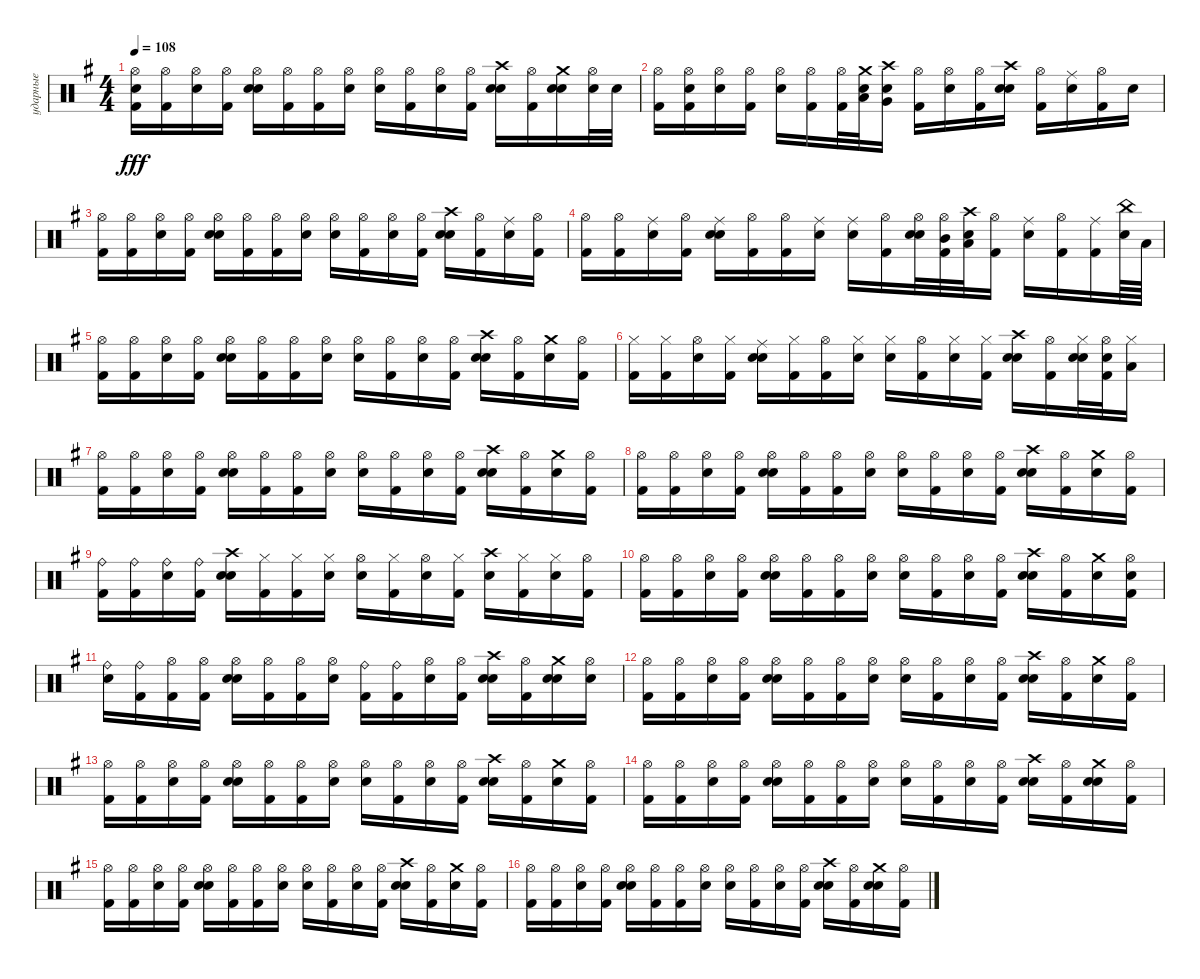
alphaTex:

\track ("ударные" "ударные") {instrument percussion}
\staff {score}
\articulation defaults
\ts (4 4)
\tempo 108
\clef neutral
\ks eminor
("Hi-Hat (open)" "Snare (hit) 2" "Kick (hit) 2").16{dy fff} ("Hi-Hat (open)" "Kick (hit) 2").16 ("Hi-Hat (open)" "Snare (hit)").16 ("Hi-Hat (open)" "Kick (hit) 2").16 ("Hi-Hat (open)" "Snare (hit) 2" "Snare (hit)").16 ("Hi-Hat (open)" "Kick (hit) 2").16 ("Hi-Hat (open)" "Kick (hit) 2").16 ("Hi-Hat (open)" "Snare (hit)").16 ("Hi-Hat (open)" "Snare (hit)").16 ("Hi-Hat (open)" "Kick (hit) 2").16 ("Hi-Hat (open)" "Snare (hit)").16 ("Hi-Hat (open)" "Kick (hit) 2").16 ("Crash high (hit)" "Snare (hit) 2" "Snare (hit)").16 ("Hi-Hat (open)" "Kick (hit) 2").16 ("Crash medium (hit)" "Snare (hit) 2" "Snare (hit)").16 ("Hi-Hat (open)" "Snare (hit) 2").32 "Snare (hit) 2".32 |
("Hi-Hat (open)" "Kick (hit) 2").16 ("Hi-Hat (open)" "Snare (hit) 2" "Kick (hit) 2").16 ("Hi-Hat (open)" "Snare (hit)").16 ("Hi-Hat (open)" "Kick (hit) 2").16 ("Hi-Hat (open)" "Snare (hit)").16 ("Hi-Hat (open)" "Kick (hit) 2").16 ("Hi-Hat (open)" "Kick (hit) 2").32 ("Crash medium (hit)" "Low Tom (hit)" "Snare (hit)").32 ("Crash high (hit)" "Very Low Tom (hit)" "Snare (hit)").16 ("Hi-Hat (open)" "Kick (hit) 2").16 ("Hi-Hat (open)" "Snare (hit)").16 ("Hi-Hat (open)" "Kick (hit) 2").16 ("Crash high (hit)" "Snare (hit) 2" "Snare (hit)").16 ("Hi-Hat (open)" "Kick (hit) 2").16 ("Ride (middle)" "Snare (hit)").16 ("Hi-Hat (open)" "Kick (hit) 2").16 "Snare (hit) 2".16 |
("Hi-Hat (open)" "Kick (hit) 2").16 ("Hi-Hat (open)" "Kick (hit) 2").16 ("Hi-Hat (open)" "Snare (hit)").16 ("Hi-Hat (open)" "Kick (hit) 2").16 ("Hi-Hat (open)" "Snare (hit) 2" "Snare (hit)").16 ("Hi-Hat (open)" "Kick (hit) 2").16 ("Hi-Hat (open)" "Kick (hit) 2").16 ("Hi-Hat (open)" "Snare (hit)").16 ("Hi-Hat (open)" "Snare (hit)").16 ("Hi-Hat (open)" "Kick (hit) 2").16 ("Hi-Hat (open)" "Snare (hit)").16 ("Hi-Hat (open)" "Kick (hit) 2").16 ("Crash high (hit)" "Snare (hit) 2" "Snare (hit)").16 ("Hi-Hat (open)" "Kick (hit) 2").16 ("Ride (middle)" "Snare (hit)").16 ("Hi-Hat (open)" "Kick (hit) 2").16 |
("Hi-Hat (open)" "Kick (hit) 2").16 ("Hi-Hat (open)" "Kick (hit) 2").16 ("Ride (middle)" "Snare (hit)").16 ("Hi-Hat (open)" "Kick (hit) 2").16 ("Ride (middle)" "Snare (hit) 2" "Snare (hit)").16 ("Hi-Hat (open)" "Kick (hit) 2").16 ("Hi-Hat (open)" "Kick (hit) 2").16 ("Ride (middle)" "Snare (hit)").16 ("Ride (middle)" "Snare (hit)").16 ("Hi-Hat (open)" "Kick (hit) 2").16 ("Hi-Hat (open)" "Snare (hit) 2" "Snare (hit)").32 ("Hi-Hat (open)" "Mid Tom (hit)" "Kick (hit) 2").32 ("Crash high (hit)" "Low Tom (hit)" "Snare (hit)").32 ("Hi-Hat (open)" "Kick (hit) 2").16 ("Ride (middle)" "Snare (hit)").16 ("Hi-Hat (open)" "Kick (hit) 2").16 ("Ride (middle)" "Kick (hit) 2").16 ("China (hit)" "Snare (hit) 2").64 "Low Floor Tom (hit)".64 |
("Hi-Hat (open)" "Kick (hit) 2").16 ("Hi-Hat (open)" "Kick (hit) 2").16 ("Hi-Hat (open)" "Snare (hit)").16 ("Hi-Hat (open)" "Kick (hit) 2").16 ("Hi-Hat (open)" "Snare (hit) 2" "Snare (hit)").16 ("Hi-Hat (open)" "Kick (hit) 2").16 ("Hi-Hat (open)" "Kick (hit) 2").16 ("Hi-Hat (open)" "Snare (hit)").16 ("Hi-Hat (open)" "Snare (hit)").16 ("Hi-Hat (open)" "Kick (hit) 2").16 ("Hi-Hat (open)" "Snare (hit)").16 ("Hi-Hat (open)" "Kick (hit) 2").16 ("Crash high (hit)" "Snare (hit) 2" "Snare (hit)").16 ("Hi-Hat (open)" "Kick (hit) 2").16 ("Crash medium (hit)" "Snare (hit)").16 ("Hi-Hat (open)" "Kick (hit) 2").16 |
("Hi-Hat (closed)" "Kick (hit) 2").16 ("Hi-Hat (closed)" "Kick (hit) 2").16 ("Hi-Hat (open)" "Snare (hit)").16 ("Hi-Hat (closed)" "Kick (hit) 2").16 ("Ride (middle)" "Snare (hit) 2" "Snare (hit)").16 ("Hi-Hat (closed)" "Kick (hit) 2").16 ("Hi-Hat (open)" "Kick (hit) 2").16 ("Hi-Hat (closed)" "Snare (hit)").16 ("Hi-Hat (closed)" "Snare (hit)").16 ("Hi-Hat (open)" "Kick (hit) 2").16 ("Hi-Hat (closed)" "Snare (hit)").16 ("Hi-Hat (closed)" "Kick (hit) 2").16 ("Crash high (hit)" "Snare (hit) 2" "Snare (hit)").16 ("Hi-Hat (open)" "Kick (hit) 2").16 ("Hi-Hat (closed)" "Snare (hit) 2" "Snare (hit)").32 ("Hi-Hat (open)" "Snare (hit) 2" "Kick (hit) 2").32 ("Hi-Hat (closed)" "Low Floor Tom (hit)").16 |
("Hi-Hat (open)" "Kick (hit) 2").16 ("Hi-Hat (open)" "Kick (hit) 2").16 ("Hi-Hat (open)" "Snare (hit)").16 ("Hi-Hat (open)" "Kick (hit) 2").16 ("Hi-Hat (open)" "Snare (hit) 2" "Snare (hit)").16 ("Hi-Hat (open)" "Kick (hit) 2").16 ("Hi-Hat (open)" "Kick (hit) 2").16 ("Hi-Hat (open)" "Snare (hit)").16 ("Hi-Hat (open)" "Snare (hit)").16 ("Hi-Hat (open)" "Kick (hit) 2").16 ("Hi-Hat (open)" "Snare (hit)").16 ("Hi-Hat (open)" "Kick (hit) 2").16 ("Crash high (hit)" "Snare (hit) 2" "Snare (hit)").16 ("Hi-Hat (open)" "Kick (hit) 2").16 ("Crash medium (hit)" "Snare (hit)").16 ("Hi-Hat (open)" "Kick (hit) 2").16 |
("Hi-Hat (open)" "Kick (hit) 2").16 ("Hi-Hat (open)" "Kick (hit) 2").16 ("Hi-Hat (open)" "Snare (hit)").16 ("Hi-Hat (open)" "Kick (hit) 2").16 ("Hi-Hat (open)" "Snare (hit) 2" "Snare (hit)").16 ("Hi-Hat (open)" "Kick (hit) 2").16 ("Hi-Hat (open)" "Kick (hit) 2").16 ("Hi-Hat (open)" "Snare (hit)").16 ("Hi-Hat (open)" "Snare (hit)").16 ("Hi-Hat (open)" "Kick (hit) 2").16 ("Hi-Hat (open)" "Snare (hit)").16 ("Hi-Hat (open)" "Kick (hit) 2").16 ("Crash high (hit)" "Snare (hit) 2" "Snare (hit)").16 ("Hi-Hat (open)" "Kick (hit) 2").16 ("Crash medium (hit)" "Snare (hit)").16 ("Hi-Hat (open)" "Kick (hit) 2").16 |
("Ride (bell)" "Kick (hit) 2").16 ("Ride (bell)" "Kick (hit) 2").16 ("Ride (bell)" "Snare (hit)").16 ("Ride (bell)" "Kick (hit) 2").16 ("Crash high (hit)" "Snare (hit) 2" "Snare (hit)").16 ("Hi-Hat (closed)" "Kick (hit) 2").16 ("Hi-Hat (closed)" "Kick (hit) 2").16 ("Hi-Hat (closed)" "Snare (hit)").16 ("Hi-Hat (open)" "Snare (hit)").16 ("Hi-Hat (closed)" "Kick (hit) 2").16 ("Hi-Hat (open)" "Snare (hit)").16 ("Hi-Hat (closed)" "Kick (hit) 2").16 ("Crash high (hit)" "Snare (hit)").16 ("Hi-Hat (closed)" "Kick (hit) 2").16 ("Hi-Hat (closed)" "Snare (hit)").16 ("Hi-Hat (open)" "Kick (hit) 2").16 |
("Hi-Hat (open)" "Kick (hit) 2").16 ("Hi-Hat (open)" "Kick (hit) 2").16 ("Hi-Hat (open)" "Snare (hit)").16 ("Hi-Hat (open)" "Kick (hit) 2").16 ("Hi-Hat (open)" "Snare (hit) 2" "Snare (hit)").16 ("Hi-Hat (open)" "Kick (hit) 2").16 ("Hi-Hat (open)" "Kick (hit) 2").16 ("Hi-Hat (open)" "Snare (hit)").16 ("Hi-Hat (open)" "Snare (hit)").16 ("Hi-Hat (open)" "Kick (hit) 2").16 ("Hi-Hat (open)" "Snare (hit)").16 ("Hi-Hat (open)" "Kick (hit) 2").16 ("Crash high (hit)" "Snare (hit) 2" "Snare (hit)").16 ("Hi-Hat (open)" "Kick (hit) 2").16 ("Crash medium (hit)" "Snare (hit)").16 ("Hi-Hat (open)" "Snare (hit) 2" "Kick (hit) 2").16 |
("Ride (bell)" "Snare (hit) 2").16 ("Ride (bell)" "Kick (hit) 2").16 ("Hi-Hat (open)" "Kick (hit) 2").16 ("Hi-Hat (open)" "Kick (hit) 2").16 ("Hi-Hat (open)" "Snare (hit) 2" "Snare (hit)").16 ("Hi-Hat (open)" "Kick (hit) 2").16 ("Hi-Hat (open)" "Kick (hit) 2").16 ("Hi-Hat (open)" "Snare (hit)").16 ("Ride (bell)" "Kick (hit) 2").16 ("Ride (bell)" "Kick (hit) 2").16 ("Hi-Hat (open)" "Snare (hit)").16 ("Hi-Hat (open)" "Kick (hit) 2").16 ("Crash high (hit)" "Snare (hit) 2" "Snare (hit)").16 ("Hi-Hat (open)" "Kick (hit) 2").16 ("Crash medium (hit)" "Snare (hit) 2" "Snare (hit)").16 ("Hi-Hat (open)" "Snare (hit) 2").16 |
("Hi-Hat (open)" "Kick (hit) 2").16 ("Hi-Hat (open)" "Kick (hit) 2").16 ("Hi-Hat (open)" "Snare (hit)").16 ("Hi-Hat (open)" "Kick (hit) 2").16 ("Hi-Hat (open)" "Snare (hit) 2" "Snare (hit)").16 ("Hi-Hat (open)" "Kick (hit) 2").16 ("Hi-Hat (open)" "Kick (hit) 2").16 ("Hi-Hat (open)" "Snare (hit)").16 ("Hi-Hat (open)" "Snare (hit)").16 ("Hi-Hat (open)" "Kick (hit) 2").16 ("Hi-Hat (open)" "Snare (hit)").16 ("Hi-Hat (open)" "Kick (hit) 2").16 ("Crash high (hit)" "Snare (hit) 2" "Snare (hit)").16 ("Hi-Hat (open)" "Kick (hit) 2").16 ("Crash medium (hit)" "Snare (hit)").16 ("Hi-Hat (open)" "Kick (hit) 2").16 |
("Hi-Hat (open)" "Kick (hit) 2").16 ("Hi-Hat (open)" "Kick (hit) 2").16 ("Hi-Hat (open)" "Snare (hit)").16 ("Hi-Hat (open)" "Kick (hit) 2").16 ("Hi-Hat (open)" "Snare (hit) 2" "Snare (hit)").16 ("Hi-Hat (open)" "Kick (hit) 2").16 ("Hi-Hat (open)" "Kick (hit) 2").16 ("Hi-Hat (open)" "Snare (hit)").16 ("Hi-Hat (open)" "Snare (hit)").16 ("Hi-Hat (open)" "Kick (hit) 2").16 ("Hi-Hat (open)" "Snare (hit)").16 ("Hi-Hat (open)" "Kick (hit) 2").16 ("Crash high (hit)" "Snare (hit) 2" "Snare (hit)").16 ("Hi-Hat (open)" "Kick (hit) 2").16 ("Crash medium (hit)" "Snare (hit)").16 ("Hi-Hat (open)" "Kick (hit) 2").16 |
("Hi-Hat (open)" "Kick (hit) 2").16 ("Hi-Hat (open)" "Kick (hit) 2").16 ("Hi-Hat (open)" "Snare (hit)").16 ("Hi-Hat (open)" "Kick (hit) 2").16 ("Hi-Hat (open)" "Snare (hit) 2" "Snare (hit)").16 ("Hi-Hat (open)" "Kick (hit) 2").16 ("Hi-Hat (open)" "Kick (hit) 2").16 ("Hi-Hat (open)" "Snare (hit)").16 ("Hi-Hat (open)" "Snare (hit)").16 ("Hi-Hat (open)" "Kick (hit) 2").16 ("Hi-Hat (open)" "Snare (hit)").16 ("Hi-Hat (open)" "Kick (hit) 2").16 ("Crash high (hit)" "Snare (hit) 2" "Snare (hit)").16 ("Hi-Hat (open)" "Kick (hit) 2").16 ("Crash medium (hit)" "Snare (hit) 2" "Snare (hit)").16 ("Hi-Hat (open)" "Kick (hit) 2").16 |
("Hi-Hat (open)" "Kick (hit) 2").16 ("Hi-Hat (open)" "Kick (hit) 2").16 ("Hi-Hat (open)" "Snare (hit)").16 ("Hi-Hat (open)" "Kick (hit) 2").16 ("Hi-Hat (open)" "Snare (hit) 2" "Snare (hit)").16 ("Hi-Hat (open)" "Kick (hit) 2").16 ("Hi-Hat (open)" "Kick (hit) 2").16 ("Hi-Hat (open)" "Snare (hit)").16 ("Hi-Hat (open)" "Snare (hit)").16 ("Hi-Hat (open)" "Kick (hit) 2").16 ("Hi-Hat (open)" "Snare (hit)").16 ("Hi-Hat (open)" "Kick (hit) 2").16 ("Crash high (hit)" "Snare (hit) 2" "Snare (hit)").16 ("Hi-Hat (open)" "Kick (hit) 2").16 ("Crash medium (hit)" "Snare (hit)").16 ("Hi-Hat (open)" "Kick (hit) 2").16 |
("Hi-Hat (open)" "Kick (hit) 2").16 ("Hi-Hat (open)" "Kick (hit) 2").16 ("Hi-Hat (open)" "Snare (hit)").16 ("Hi-Hat (open)" "Kick (hit) 2").16 ("Hi-Hat (open)" "Snare (hit) 2" "Snare (hit)").16 ("Hi-Hat (open)" "Kick (hit) 2").16 ("Hi-Hat (open)" "Kick (hit) 2").16 ("Hi-Hat (open)" "Snare (hit)").16 ("Hi-Hat (open)" "Snare (hit)").16 ("Hi-Hat (open)" "Kick (hit) 2").16 ("Hi-Hat (open)" "Snare (hit)").16 ("Hi-Hat (open)" "Kick (hit) 2").16 ("Crash high (hit)" "Snare (hit) 2" "Snare (hit)").16 ("Hi-Hat (open)" "Kick (hit) 2").16 ("Crash medium (hit)" "Snare (hit) 2" "Snare (hit)").16 ("Hi-Hat (open)" "Kick (hit) 2").16
